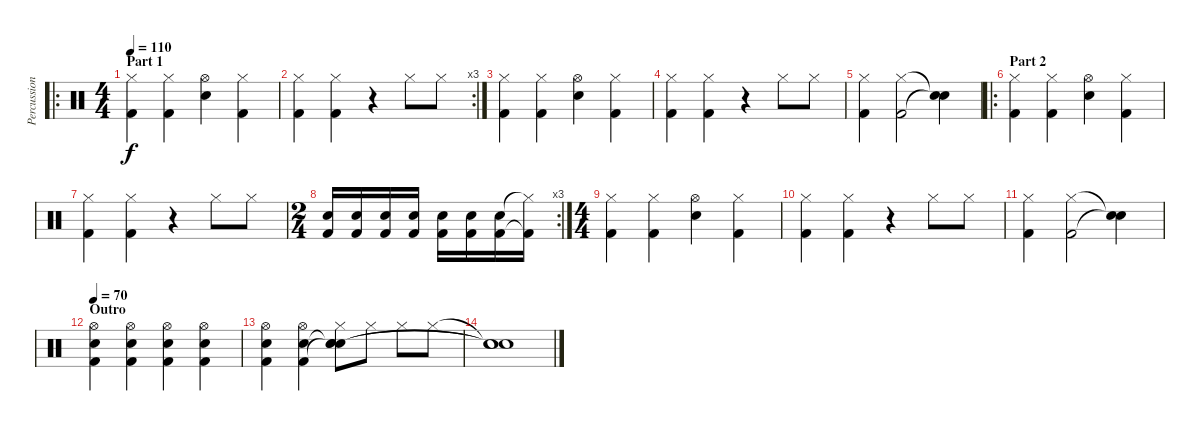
\track ("Percussion" "Percussion") {instrument percussion}
\staff {score}
\articulation defaults
\ro
\ts (4 4)
\section ("" "Part 1")
\tempo 110
\clef neutral
\ks c
("Hi-Hat (closed)" "Kick (hit) 2").4{dy f} ("Hi-Hat (closed)" "Kick (hit) 2").4 ("Snare (hit) 2" "Hi-Hat (open)").4 ("Hi-Hat (closed)" "Kick (hit) 2").4 |
\rc 3
("Hi-Hat (closed)" "Kick (hit) 2").4 ("Hi-Hat (closed)" "Kick (hit) 2").4 r.4 "Hi-Hat (closed)".8 "Hi-Hat (closed)".8 |
("Hi-Hat (closed)" "Kick (hit) 2").4 ("Hi-Hat (closed)" "Kick (hit) 2").4 ("Snare (hit) 2" "Hi-Hat (open)").4 ("Hi-Hat (closed)" "Kick (hit) 2").4 |
("Hi-Hat (closed)" "Kick (hit) 2").4 ("Hi-Hat (closed)" "Kick (hit) 2").4 r.4 "Hi-Hat (closed)".8 "Hi-Hat (closed)".8 |
("Hi-Hat (closed)" "Kick (hit) 2").4 ("Hi-Hat (closed)" "Kick (hit) 2").2 ("Snare (hit)"{t} "Snare (hit)"{t}).4 |
\ro
\section ("" "Part 2")
("Hi-Hat (closed)" "Kick (hit) 2").4 ("Hi-Hat (closed)" "Kick (hit) 2").4 ("Snare (hit) 2" "Hi-Hat (open)").4 ("Hi-Hat (closed)" "Kick (hit) 2").4 |
("Hi-Hat (closed)" "Kick (hit) 2").4 ("Hi-Hat (closed)" "Kick (hit) 2").4 r.4 "Hi-Hat (closed)".8 "Hi-Hat (closed)".8 |
\rc 3
\ts (2 4)
("Snare (hit) 2" "Kick (hit) 2").16 ("Snare (hit) 2" "Kick (hit) 2").16 ("Snare (hit) 2" "Kick (hit) 2").16 ("Snare (hit) 2" "Kick (hit) 2").16 ("Snare (hit) 2" "Kick (hit) 2").16 ("Snare (hit) 2" "Kick (hit) 2").16 ("Snare (hit) 2" "Kick (hit) 2").16 ("Hi-Hat (closed)"{t} "Kick (hit) 2"{t}).16 |
\ts (4 4)
("Hi-Hat (closed)" "Kick (hit) 2").4 ("Hi-Hat (closed)" "Kick (hit) 2").4 ("Snare (hit) 2" "Hi-Hat (open)").4 ("Hi-Hat (closed)" "Kick (hit) 2").4 |
("Hi-Hat (closed)" "Kick (hit) 2").4 ("Hi-Hat (closed)" "Kick (hit) 2").4 r.4 "Hi-Hat (closed)".8 "Hi-Hat (closed)".8 |
("Hi-Hat (closed)" "Kick (hit) 2").4 ("Hi-Hat (closed)" "Kick (hit) 2").2 ("Snare (hit)"{t} "Snare (hit)"{t}).4 |
\section ("" "Outro")
\tempo 70
("Hi-Hat (open)" "Snare (hit) 2" "Kick (hit) 2").4 ("Hi-Hat (open)" "Snare (hit) 2" "Kick (hit) 2").4 ("Hi-Hat (open)" "Snare (hit) 2" "Kick (hit) 2").4 ("Hi-Hat (open)" "Snare (hit) 2" "Kick (hit) 2").4 |
("Hi-Hat (open)" "Snare (hit) 2" "Kick (hit) 2").4 ("Hi-Hat (open)" "Snare (hit) 2" "Kick (hit) 2").4 ("Hi-Hat (closed)" "Snare (hit)"{t} "Snare (hit)"{t} "Snare (hit)").8 "Hi-Hat (closed)".8 "Hi-Hat (closed)".8 "Hi-Hat (closed)".8 |
("Snare (hit)"{t} "Snare (hit)"{t} "Snare (hit)"{t}).1
